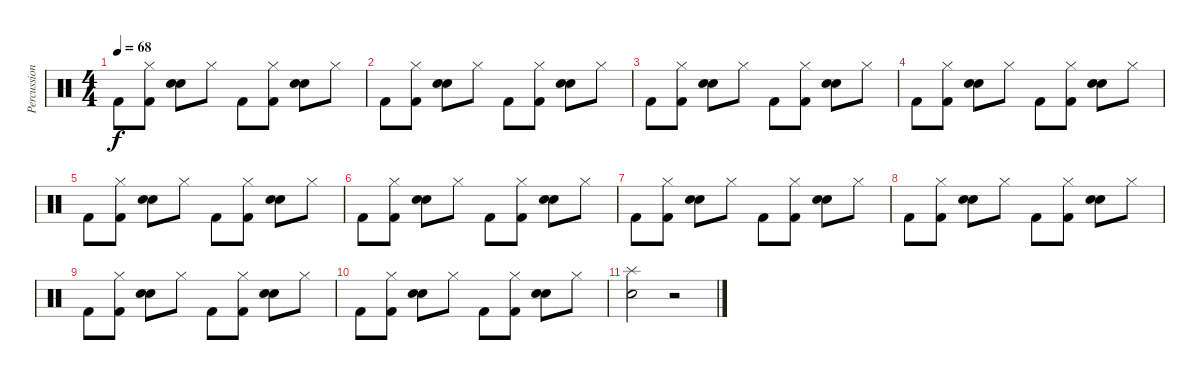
\track ("Percussions" "Percussion") {instrument percussion}
\staff {score}
\articulation defaults
\ts (4 4)
\tempo 68
\clef neutral
\ks c "Kick (hit) 2".8{dy f}
("Hi-Hat (closed)" "Kick (hit) 2").8 ("Snare (hit) 2" "Electric Snare (hit)").8 "Hi-Hat (closed)".8 "Kick (hit) 2".8 ("Hi-Hat (closed)" "Kick (hit) 2").8 ("Snare (hit) 2" "Electric Snare (hit)").8 "Hi-Hat (closed)".8 |
"Kick (hit) 2".8 ("Hi-Hat (closed)" "Kick (hit) 2").8 ("Snare (hit) 2" "Electric Snare (hit)").8 "Hi-Hat (closed)".8 "Kick (hit) 2".8 ("Hi-Hat (closed)" "Kick (hit) 2").8 ("Snare (hit) 2" "Electric Snare (hit)").8 "Hi-Hat (closed)".8 |
"Kick (hit) 2".8 ("Hi-Hat (closed)" "Kick (hit) 2").8 ("Snare (hit) 2" "Electric Snare (hit)").8 "Hi-Hat (closed)".8 "Kick (hit) 2".8 ("Hi-Hat (closed)" "Kick (hit) 2").8 ("Snare (hit) 2" "Electric Snare (hit)").8 "Hi-Hat (closed)".8 |
"Kick (hit) 2".8 ("Hi-Hat (closed)" "Kick (hit) 2").8 ("Snare (hit) 2" "Electric Snare (hit)").8 "Hi-Hat (closed)".8 "Kick (hit) 2".8 ("Hi-Hat (closed)" "Kick (hit) 2").8 ("Snare (hit) 2" "Electric Snare (hit)").8 "Hi-Hat (closed)".8 |
"Kick (hit) 2".8 ("Hi-Hat (closed)" "Kick (hit) 2").8 ("Snare (hit) 2" "Electric Snare (hit)").8 "Hi-Hat (closed)".8 "Kick (hit) 2".8 ("Hi-Hat (closed)" "Kick (hit) 2").8 ("Snare (hit) 2" "Electric Snare (hit)").8 "Hi-Hat (closed)".8 |
"Kick (hit) 2".8 ("Hi-Hat (closed)" "Kick (hit) 2").8 ("Snare (hit) 2" "Electric Snare (hit)").8 "Hi-Hat (closed)".8 "Kick (hit) 2".8 ("Hi-Hat (closed)" "Kick (hit) 2").8 ("Snare (hit) 2" "Electric Snare (hit)").8 "Hi-Hat (closed)".8 |
"Kick (hit) 2".8 ("Hi-Hat (closed)" "Kick (hit) 2").8 ("Snare (hit) 2" "Electric Snare (hit)").8 "Hi-Hat (closed)".8 "Kick (hit) 2".8 ("Hi-Hat (closed)" "Kick (hit) 2").8 ("Snare (hit) 2" "Electric Snare (hit)").8 "Hi-Hat (closed)".8 |
"Kick (hit) 2".8 ("Hi-Hat (closed)" "Kick (hit) 2").8 ("Snare (hit) 2" "Electric Snare (hit)").8 "Hi-Hat (closed)".8 "Kick (hit) 2".8 ("Hi-Hat (closed)" "Kick (hit) 2").8 ("Snare (hit) 2" "Electric Snare (hit)").8 "Hi-Hat (closed)".8 |
"Kick (hit) 2".8 ("Hi-Hat (closed)" "Kick (hit) 2").8 ("Snare (hit) 2" "Electric Snare (hit)").8 "Hi-Hat (closed)".8 "Kick (hit) 2".8 ("Hi-Hat (closed)" "Kick (hit) 2").8 ("Snare (hit) 2" "Electric Snare (hit)").8 "Hi-Hat (closed)".8 |
"Kick (hit) 2".8 ("Hi-Hat (closed)" "Kick (hit) 2").8 ("Snare (hit) 2" "Electric Snare (hit)").8 "Hi-Hat (closed)".8 "Kick (hit) 2".8 ("Hi-Hat (closed)" "Kick (hit) 2").8 ("Snare (hit) 2" "Electric Snare (hit)").8 "Hi-Hat (closed)".8 |
("Snare (hit) 2" "Splash (hit)").2 r.2
